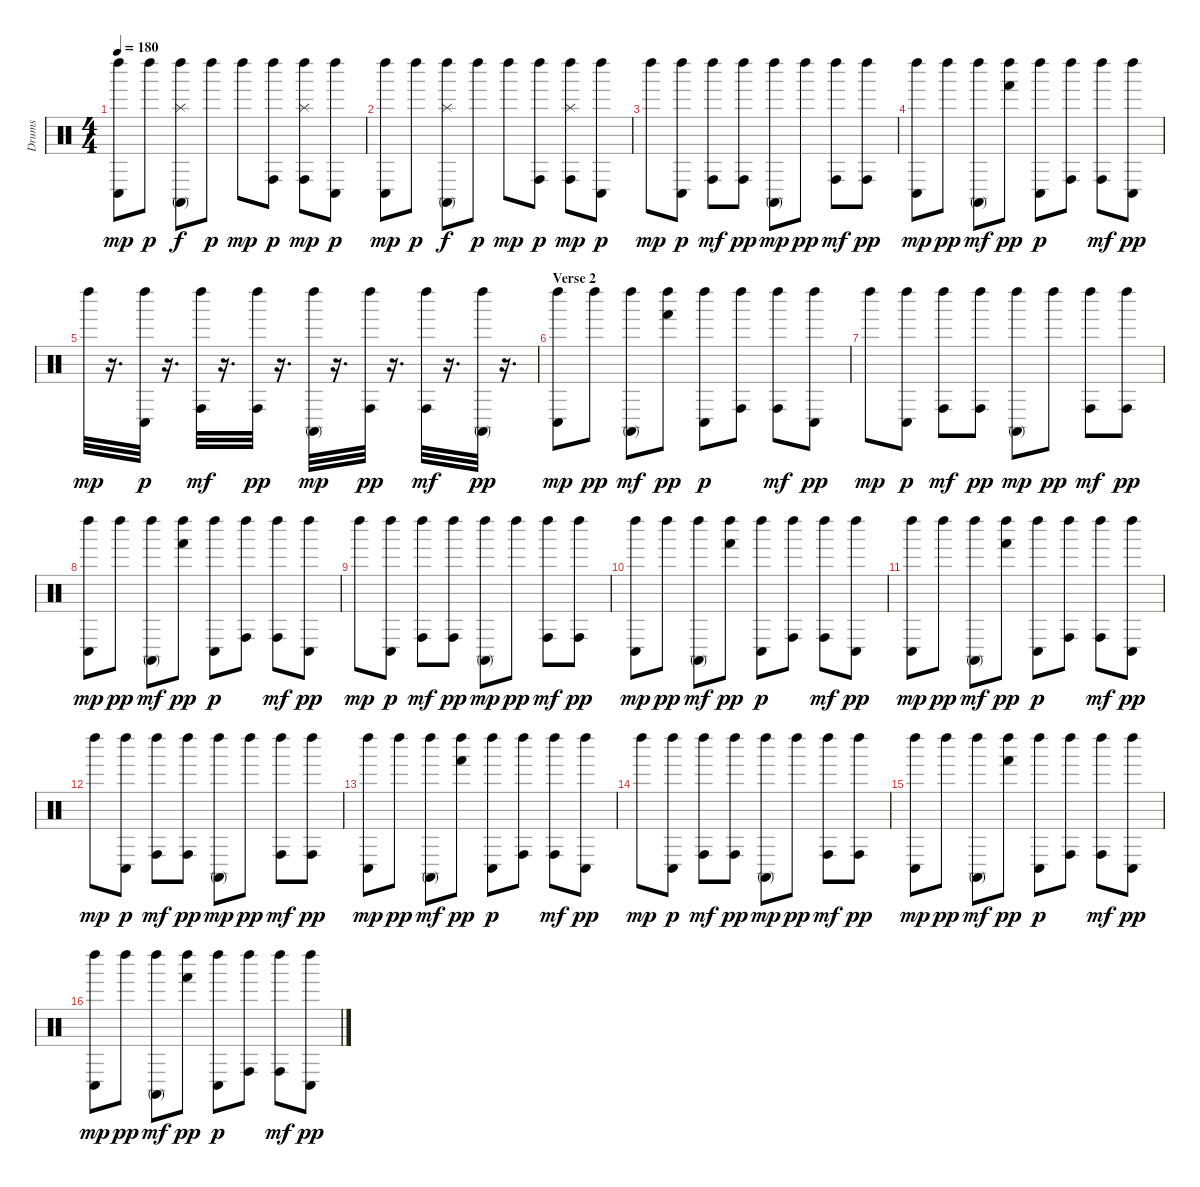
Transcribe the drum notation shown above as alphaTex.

\track ("Drums" "Drums") {instrument percussion}
\staff {score}
\articulation defaults
\ts (4 4)
\tempo 180
\clef neutral
\ks c
("Left Maraca (hit)" "Conga low (hit)").8{dy mp} "Left Maraca (hit)".8{dy p} ("Left Maraca (hit)" "Conga high (mute)" "Splash (hit)").8{dy f} "Left Maraca (hit)".8{dy p} "Left Maraca (hit)".8{dy mp} ("Left Maraca (hit)" "Conga high (hit)").8{dy p} ("Left Maraca (hit)" "Conga high (hit)" "Splash (hit)").8{dy mp} ("Left Maraca (hit)" "Conga low (hit)").8{dy p} |
("Left Maraca (hit)" "Conga low (hit)").8{dy mp} "Left Maraca (hit)".8{dy p} ("Left Maraca (hit)" "Conga high (mute)" "Splash (hit)").8{dy f} "Left Maraca (hit)".8{dy p} "Left Maraca (hit)".8{dy mp} ("Left Maraca (hit)" "Conga high (hit)").8{dy p} ("Left Maraca (hit)" "Conga high (hit)" "Splash (hit)").8{dy mp} ("Left Maraca (hit)" "Conga low (hit)").8{dy p} |
"Left Maraca (hit)".8{dy mp} ("Left Maraca (hit)" "Conga low (hit)").8{dy p} ("Left Maraca (hit)" "Conga high (hit)").8{dy mf} ("Left Maraca (hit)" "Conga high (hit)").8{dy pp} ("Left Maraca (hit)" "Conga high (mute)").8{dy mp} "Left Maraca (hit)".8{dy pp} ("Left Maraca (hit)" "Conga high (hit)").8{dy mf} ("Left Maraca (hit)" "Conga high (hit)").8{dy pp} |
("Left Maraca (hit)" "Conga low (hit)").8{dy mp} "Left Maraca (hit)".8{dy pp} ("Left Maraca (hit)" "Conga high (mute)").8{dy mf} ("Left Maraca (hit)" "Hand (hit)").8{dy pp} ("Left Maraca (hit)" "Conga low (hit)").8{dy p} ("Left Maraca (hit)" "Conga high (hit)").8 ("Left Maraca (hit)" "Conga high (hit)").8{dy mf} ("Left Maraca (hit)" "Conga low (hit)").8{dy pp} |
"Left Maraca (hit)".32{dy mp} r.16{d} ("Conga low (hit)" "Left Maraca (hit)").32{dy p} r.16{d} ("Conga high (hit)" "Left Maraca (hit)").32{dy mf} r.16{d} ("Conga high (hit)" "Left Maraca (hit)").32{dy pp} r.16{d} ("Conga high (mute)" "Left Maraca (hit)").32{dy mp} r.16{d} ("Conga high (hit)" "Left Maraca (hit)").32{dy pp} r.16{d} ("Conga high (hit)" "Left Maraca (hit)").32{dy mf} r.16{d} ("Conga high (mute)" "Left Maraca (hit)").32{dy pp} r.16{d} |
\section ("" "Verse 2")
("Left Maraca (hit)" "Conga low (hit)").8{dy mp} "Left Maraca (hit)".8{dy pp} ("Left Maraca (hit)" "Conga high (mute)").8{dy mf} ("Left Maraca (hit)" "Hand (hit)").8{dy pp} ("Left Maraca (hit)" "Conga low (hit)").8{dy p} ("Left Maraca (hit)" "Conga high (hit)").8 ("Left Maraca (hit)" "Conga high (hit)").8{dy mf} ("Left Maraca (hit)" "Conga low (hit)").8{dy pp} |
"Left Maraca (hit)".8{dy mp} ("Left Maraca (hit)" "Conga low (hit)").8{dy p} ("Left Maraca (hit)" "Conga high (hit)").8{dy mf} ("Left Maraca (hit)" "Conga high (hit)").8{dy pp} ("Left Maraca (hit)" "Conga high (mute)").8{dy mp} "Left Maraca (hit)".8{dy pp} ("Left Maraca (hit)" "Conga high (hit)").8{dy mf} ("Left Maraca (hit)" "Conga high (hit)").8{dy pp} |
("Left Maraca (hit)" "Conga low (hit)").8{dy mp} "Left Maraca (hit)".8{dy pp} ("Left Maraca (hit)" "Conga high (mute)").8{dy mf} ("Left Maraca (hit)" "Hand (hit)").8{dy pp} ("Left Maraca (hit)" "Conga low (hit)").8{dy p} ("Left Maraca (hit)" "Conga high (hit)").8 ("Left Maraca (hit)" "Conga high (hit)").8{dy mf} ("Left Maraca (hit)" "Conga low (hit)").8{dy pp} |
"Left Maraca (hit)".8{dy mp} ("Left Maraca (hit)" "Conga low (hit)").8{dy p} ("Left Maraca (hit)" "Conga high (hit)").8{dy mf} ("Left Maraca (hit)" "Conga high (hit)").8{dy pp} ("Left Maraca (hit)" "Conga high (mute)").8{dy mp} "Left Maraca (hit)".8{dy pp} ("Left Maraca (hit)" "Conga high (hit)").8{dy mf} ("Left Maraca (hit)" "Conga high (hit)").8{dy pp} |
("Left Maraca (hit)" "Conga low (hit)").8{dy mp} "Left Maraca (hit)".8{dy pp} ("Left Maraca (hit)" "Conga high (mute)").8{dy mf} ("Left Maraca (hit)" "Hand (hit)").8{dy pp} ("Left Maraca (hit)" "Conga low (hit)").8{dy p} ("Left Maraca (hit)" "Conga high (hit)").8 ("Left Maraca (hit)" "Conga high (hit)").8{dy mf} ("Left Maraca (hit)" "Conga low (hit)").8{dy pp} |
("Left Maraca (hit)" "Conga low (hit)").8{dy mp} "Left Maraca (hit)".8{dy pp} ("Left Maraca (hit)" "Conga high (mute)").8{dy mf} ("Left Maraca (hit)" "Hand (hit)").8{dy pp} ("Left Maraca (hit)" "Conga low (hit)").8{dy p} ("Left Maraca (hit)" "Conga high (hit)").8 ("Left Maraca (hit)" "Conga high (hit)").8{dy mf} ("Left Maraca (hit)" "Conga low (hit)").8{dy pp} |
"Left Maraca (hit)".8{dy mp} ("Left Maraca (hit)" "Conga low (hit)").8{dy p} ("Left Maraca (hit)" "Conga high (hit)").8{dy mf} ("Left Maraca (hit)" "Conga high (hit)").8{dy pp} ("Left Maraca (hit)" "Conga high (mute)").8{dy mp} "Left Maraca (hit)".8{dy pp} ("Left Maraca (hit)" "Conga high (hit)").8{dy mf} ("Left Maraca (hit)" "Conga high (hit)").8{dy pp} |
("Left Maraca (hit)" "Conga low (hit)").8{dy mp} "Left Maraca (hit)".8{dy pp} ("Left Maraca (hit)" "Conga high (mute)").8{dy mf} ("Left Maraca (hit)" "Hand (hit)").8{dy pp} ("Left Maraca (hit)" "Conga low (hit)").8{dy p} ("Left Maraca (hit)" "Conga high (hit)").8 ("Left Maraca (hit)" "Conga high (hit)").8{dy mf} ("Left Maraca (hit)" "Conga low (hit)").8{dy pp} |
"Left Maraca (hit)".8{dy mp} ("Left Maraca (hit)" "Conga low (hit)").8{dy p} ("Left Maraca (hit)" "Conga high (hit)").8{dy mf} ("Left Maraca (hit)" "Conga high (hit)").8{dy pp} ("Left Maraca (hit)" "Conga high (mute)").8{dy mp} "Left Maraca (hit)".8{dy pp} ("Left Maraca (hit)" "Conga high (hit)").8{dy mf} ("Left Maraca (hit)" "Conga high (hit)").8{dy pp} |
("Left Maraca (hit)" "Conga low (hit)").8{dy mp} "Left Maraca (hit)".8{dy pp} ("Left Maraca (hit)" "Conga high (mute)").8{dy mf} ("Left Maraca (hit)" "Hand (hit)").8{dy pp} ("Left Maraca (hit)" "Conga low (hit)").8{dy p} ("Left Maraca (hit)" "Conga high (hit)").8 ("Left Maraca (hit)" "Conga high (hit)").8{dy mf} ("Left Maraca (hit)" "Conga low (hit)").8{dy pp} |
("Left Maraca (hit)" "Conga low (hit)").8{dy mp} "Left Maraca (hit)".8{dy pp} ("Left Maraca (hit)" "Conga high (mute)").8{dy mf} ("Left Maraca (hit)" "Hand (hit)").8{dy pp} ("Left Maraca (hit)" "Conga low (hit)").8{dy p} ("Left Maraca (hit)" "Conga high (hit)").8 ("Left Maraca (hit)" "Conga high (hit)").8{dy mf} ("Left Maraca (hit)" "Conga low (hit)").8{dy pp}
